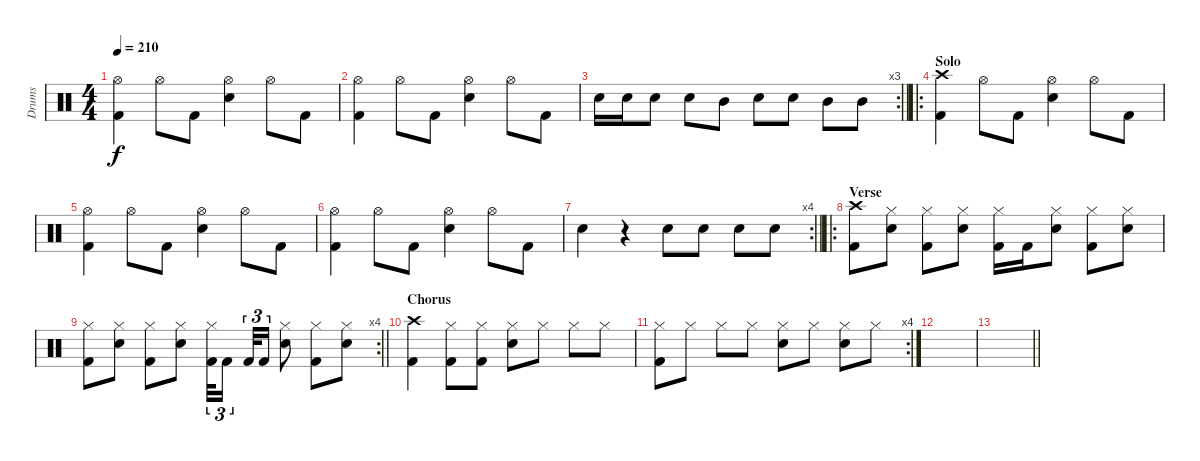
\track ("Drums" "Drums") {instrument percussion}
\staff {score}
\articulation defaults
\ts (4 4)
\tempo 210
\clef neutral
\ks c
("Hi-Hat (open)" "Kick (hit) 2").4{dy f} "Hi-Hat (open)".8 "Kick (hit) 2".8 ("Hi-Hat (open)" "Electric Snare (hit)").4 "Hi-Hat (open)".8 "Kick (hit) 2".8 |
("Hi-Hat (open)" "Kick (hit) 2").4 "Hi-Hat (open)".8 "Kick (hit) 2".8 ("Hi-Hat (open)" "Electric Snare (hit)").4 "Hi-Hat (open)".8 "Kick (hit) 2".8 |
\rc 3
\barLineRight lightlight "Electric Snare (hit)".16 "Electric Snare (hit)".16 "Electric Snare (hit)".8 "Electric Snare (hit)".8 "Mid Tom (hit)".8 "Electric Snare (hit)".8 "Electric Snare (hit)".8 "Mid Tom (hit)".8 "Mid Tom (hit)".8
|
\ro
\section ("" "Solo")
("Crash high (hit)" "Kick (hit) 2").4 "Hi-Hat (open)".8 "Kick (hit) 2".8 ("Hi-Hat (open)" "Electric Snare (hit)").4 "Hi-Hat (open)".8 "Kick (hit) 2".8 |
("Hi-Hat (open)" "Kick (hit) 2").4 "Hi-Hat (open)".8 "Kick (hit) 2".8 ("Hi-Hat (open)" "Electric Snare (hit)").4 "Hi-Hat (open)".8 "Kick (hit) 2".8 |
("Hi-Hat (open)" "Kick (hit) 2").4 "Hi-Hat (open)".8 "Kick (hit) 2".8 ("Hi-Hat (open)" "Electric Snare (hit)").4 "Hi-Hat (open)".8 "Kick (hit) 2".8 |
\rc 4
\barLineRight lightlight "Electric Snare (hit)".4
r.4 "Electric Snare (hit)".8 "Electric Snare (hit)".8 "Electric Snare (hit)".8 "Electric Snare (hit)".8 |
\ro
\section ("" "Verse")
("Kick (hit) 2" "Crash high (hit)").8 ("Electric Snare (hit)" "Hi-Hat (closed)").8 ("Kick (hit) 2" "Hi-Hat (closed)").8 ("Electric Snare (hit)" "Hi-Hat (closed)").8 ("Kick (hit) 2" "Hi-Hat (closed)").16 "Kick (hit) 2".16 ("Electric Snare (hit)" "Hi-Hat (closed)").8 ("Kick (hit) 2" "Hi-Hat (closed)").8 ("Electric Snare (hit)" "Hi-Hat (closed)").8 |
\rc 4
\barLineRight lightlight
("Kick (hit) 2" "Hi-Hat (closed)").8 ("Electric Snare (hit)" "Hi-Hat (closed)").8 ("Kick (hit) 2" "Hi-Hat (closed)").8 ("Electric Snare (hit)" "Hi-Hat (closed)").8 ("Kick (hit) 2" "Hi-Hat (closed)").32{tu (3 2)} "Kick (hit) 2".16{tu (3 2) beam splitsecondary} "Kick (hit) 2".32{tu (3 2)} "Kick (hit) 2".16{tu (3 2)} ("Electric Snare (hit)" "Hi-Hat (closed)").8 ("Kick (hit) 2" "Hi-Hat (closed)").8 ("Electric Snare (hit)" "Hi-Hat (closed)").8 |
\section ("" "Chorus")
("Kick (hit) 2" "Crash high (hit)").4 ("Kick (hit) 2" "Hi-Hat (closed)").8 ("Kick (hit) 2" "Hi-Hat (closed)").8 ("Electric Snare (hit)" "Hi-Hat (closed)").8 "Hi-Hat (closed)".8 "Hi-Hat (closed)".8 "Hi-Hat (closed)".8 |
\rc 4
("Kick (hit) 2" "Hi-Hat (closed)").8 "Hi-Hat (closed)".8 "Hi-Hat (closed)".8 "Hi-Hat (closed)".8 ("Electric Snare (hit)" "Hi-Hat (closed)").8 "Hi-Hat (closed)".8 ("Electric Snare (hit)" "Hi-Hat (closed)").8 "Hi-Hat (closed)".8 |
|
\barLineRight lightlight
